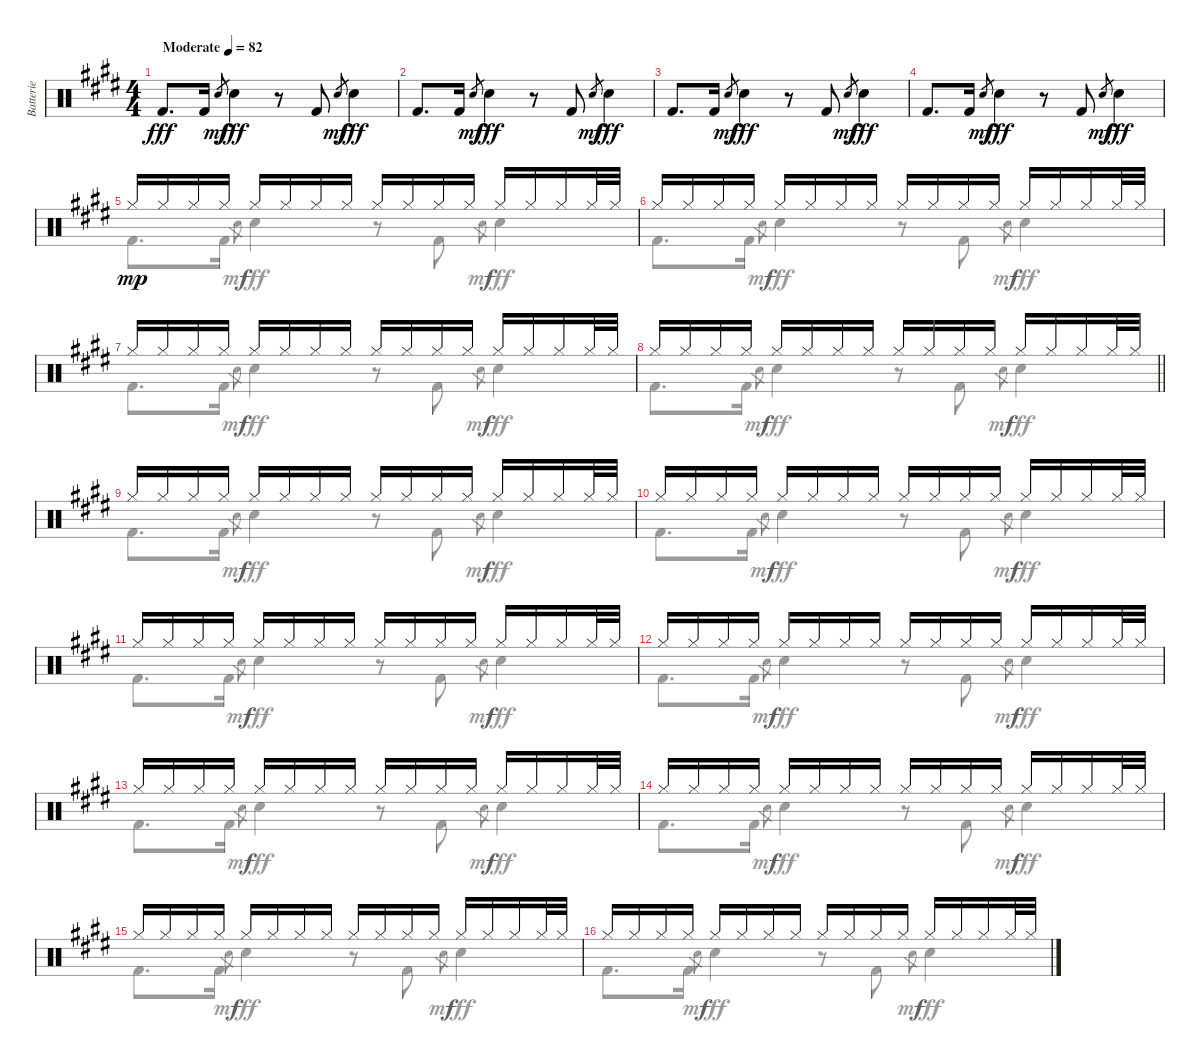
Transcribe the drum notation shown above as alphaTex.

\track ("Batterie" "Batterie") {instrument percussion}
\staff {score}
\articulation defaults
\voice
\ts (4 4)
\tempo (82 "Moderate")
\clef neutral
\ks e "Kick (hit) 2".8{d dy fff} "Kick (hit) 2".16 "Hand Clap (hit)".8{gr dy mf} "Hand Clap (hit)".4{dy fff}
r.8 "Kick (hit) 2".8 "Hand Clap (hit)".8{gr dy mf} "Hand Clap (hit)".4{dy fff} |
"Kick (hit) 2".8{d} "Kick (hit) 2".16 "Hand Clap (hit)".8{gr dy mf} "Hand Clap (hit)".4{dy fff} r.8 "Kick (hit) 2".8 "Hand Clap (hit)".8{gr dy mf} "Hand Clap (hit)".4{dy fff} |
"Kick (hit) 2".8{d} "Kick (hit) 2".16 "Hand Clap (hit)".8{gr dy mf} "Hand Clap (hit)".4{dy fff} r.8 "Kick (hit) 2".8 "Hand Clap (hit)".8{gr dy mf} "Hand Clap (hit)".4{dy fff} |
"Kick (hit) 2".8{d} "Kick (hit) 2".16 "Hand Clap (hit)".8{gr dy mf} "Hand Clap (hit)".4{dy fff} r.8 "Kick (hit) 2".8 "Hand Clap (hit)".8{gr dy mf} "Hand Clap (hit)".4{dy fff} |
"Hi-Hat (closed)".16{dy mp} "Hi-Hat (closed)".16 "Hi-Hat (closed)".16 "Hi-Hat (closed)".16 "Hi-Hat (closed)".16 "Hi-Hat (closed)".16 "Hi-Hat (closed)".16 "Hi-Hat (closed)".16 "Hi-Hat (closed)".16 "Hi-Hat (closed)".16 "Hi-Hat (closed)".16 "Hi-Hat (closed)".16 "Hi-Hat (closed)".16 "Hi-Hat (closed)".16 "Hi-Hat (closed)".16 "Hi-Hat (closed)".32 "Hi-Hat (closed)".32 |
"Hi-Hat (closed)".16 "Hi-Hat (closed)".16 "Hi-Hat (closed)".16 "Hi-Hat (closed)".16 "Hi-Hat (closed)".16 "Hi-Hat (closed)".16 "Hi-Hat (closed)".16 "Hi-Hat (closed)".16 "Hi-Hat (closed)".16 "Hi-Hat (closed)".16 "Hi-Hat (closed)".16 "Hi-Hat (closed)".16 "Hi-Hat (closed)".16 "Hi-Hat (closed)".16 "Hi-Hat (closed)".16 "Hi-Hat (closed)".32 "Hi-Hat (closed)".32 |
"Hi-Hat (closed)".16 "Hi-Hat (closed)".16 "Hi-Hat (closed)".16 "Hi-Hat (closed)".16 "Hi-Hat (closed)".16 "Hi-Hat (closed)".16 "Hi-Hat (closed)".16 "Hi-Hat (closed)".16 "Hi-Hat (closed)".16 "Hi-Hat (closed)".16 "Hi-Hat (closed)".16 "Hi-Hat (closed)".16 "Hi-Hat (closed)".16 "Hi-Hat (closed)".16 "Hi-Hat (closed)".16 "Hi-Hat (closed)".32 "Hi-Hat (closed)".32 |
\barLineRight lightlight "Hi-Hat (closed)".16 "Hi-Hat (closed)".16 "Hi-Hat (closed)".16 "Hi-Hat (closed)".16 "Hi-Hat (closed)".16 "Hi-Hat (closed)".16 "Hi-Hat (closed)".16 "Hi-Hat (closed)".16 "Hi-Hat (closed)".16 "Hi-Hat (closed)".16 "Hi-Hat (closed)".16 "Hi-Hat (closed)".16 "Hi-Hat (closed)".16 "Hi-Hat (closed)".16 "Hi-Hat (closed)".16 "Hi-Hat (closed)".32 "Hi-Hat (closed)".32
|
"Hi-Hat (closed)".16 "Hi-Hat (closed)".16 "Hi-Hat (closed)".16 "Hi-Hat (closed)".16 "Hi-Hat (closed)".16 "Hi-Hat (closed)".16 "Hi-Hat (closed)".16 "Hi-Hat (closed)".16 "Hi-Hat (closed)".16 "Hi-Hat (closed)".16 "Hi-Hat (closed)".16 "Hi-Hat (closed)".16 "Hi-Hat (closed)".16 "Hi-Hat (closed)".16 "Hi-Hat (closed)".16 "Hi-Hat (closed)".32 "Hi-Hat (closed)".32 |
"Hi-Hat (closed)".16 "Hi-Hat (closed)".16 "Hi-Hat (closed)".16 "Hi-Hat (closed)".16 "Hi-Hat (closed)".16 "Hi-Hat (closed)".16 "Hi-Hat (closed)".16 "Hi-Hat (closed)".16 "Hi-Hat (closed)".16 "Hi-Hat (closed)".16 "Hi-Hat (closed)".16 "Hi-Hat (closed)".16 "Hi-Hat (closed)".16 "Hi-Hat (closed)".16 "Hi-Hat (closed)".16 "Hi-Hat (closed)".32 "Hi-Hat (closed)".32 |
"Hi-Hat (closed)".16 "Hi-Hat (closed)".16 "Hi-Hat (closed)".16 "Hi-Hat (closed)".16 "Hi-Hat (closed)".16 "Hi-Hat (closed)".16 "Hi-Hat (closed)".16 "Hi-Hat (closed)".16 "Hi-Hat (closed)".16 "Hi-Hat (closed)".16 "Hi-Hat (closed)".16 "Hi-Hat (closed)".16 "Hi-Hat (closed)".16 "Hi-Hat (closed)".16 "Hi-Hat (closed)".16 "Hi-Hat (closed)".32 "Hi-Hat (closed)".32 |
"Hi-Hat (closed)".16 "Hi-Hat (closed)".16 "Hi-Hat (closed)".16 "Hi-Hat (closed)".16 "Hi-Hat (closed)".16 "Hi-Hat (closed)".16 "Hi-Hat (closed)".16 "Hi-Hat (closed)".16 "Hi-Hat (closed)".16 "Hi-Hat (closed)".16 "Hi-Hat (closed)".16 "Hi-Hat (closed)".16 "Hi-Hat (closed)".16 "Hi-Hat (closed)".16 "Hi-Hat (closed)".16 "Hi-Hat (closed)".32 "Hi-Hat (closed)".32 |
"Hi-Hat (closed)".16 "Hi-Hat (closed)".16 "Hi-Hat (closed)".16 "Hi-Hat (closed)".16 "Hi-Hat (closed)".16 "Hi-Hat (closed)".16 "Hi-Hat (closed)".16 "Hi-Hat (closed)".16 "Hi-Hat (closed)".16 "Hi-Hat (closed)".16 "Hi-Hat (closed)".16 "Hi-Hat (closed)".16 "Hi-Hat (closed)".16 "Hi-Hat (closed)".16 "Hi-Hat (closed)".16 "Hi-Hat (closed)".32 "Hi-Hat (closed)".32 |
"Hi-Hat (closed)".16 "Hi-Hat (closed)".16 "Hi-Hat (closed)".16 "Hi-Hat (closed)".16 "Hi-Hat (closed)".16 "Hi-Hat (closed)".16 "Hi-Hat (closed)".16 "Hi-Hat (closed)".16 "Hi-Hat (closed)".16 "Hi-Hat (closed)".16 "Hi-Hat (closed)".16 "Hi-Hat (closed)".16 "Hi-Hat (closed)".16 "Hi-Hat (closed)".16 "Hi-Hat (closed)".16 "Hi-Hat (closed)".32 "Hi-Hat (closed)".32 |
"Hi-Hat (closed)".16 "Hi-Hat (closed)".16 "Hi-Hat (closed)".16 "Hi-Hat (closed)".16 "Hi-Hat (closed)".16 "Hi-Hat (closed)".16 "Hi-Hat (closed)".16 "Hi-Hat (closed)".16 "Hi-Hat (closed)".16 "Hi-Hat (closed)".16 "Hi-Hat (closed)".16 "Hi-Hat (closed)".16 "Hi-Hat (closed)".16 "Hi-Hat (closed)".16 "Hi-Hat (closed)".16 "Hi-Hat (closed)".32 "Hi-Hat (closed)".32 |
"Hi-Hat (closed)".16 "Hi-Hat (closed)".16 "Hi-Hat (closed)".16 "Hi-Hat (closed)".16 "Hi-Hat (closed)".16 "Hi-Hat (closed)".16 "Hi-Hat (closed)".16 "Hi-Hat (closed)".16 "Hi-Hat (closed)".16 "Hi-Hat (closed)".16 "Hi-Hat (closed)".16 "Hi-Hat (closed)".16 "Hi-Hat (closed)".16 "Hi-Hat (closed)".16 "Hi-Hat (closed)".16 "Hi-Hat (closed)".32 "Hi-Hat (closed)".32
\voice
\clef neutral
\ottava regular
\simile none
\ks e
|
|
|
|
"Kick (hit) 2".8{d} "Kick (hit) 2".16 "Hand Clap (hit)".8{gr dy mf} "Hand Clap (hit)".4{dy fff} r.8 "Kick (hit) 2".8 "Hand Clap (hit)".8{gr dy mf} "Hand Clap (hit)".4{dy fff} |
"Kick (hit) 2".8{d} "Kick (hit) 2".16 "Hand Clap (hit)".8{gr dy mf} "Hand Clap (hit)".4{dy fff} r.8 "Kick (hit) 2".8 "Hand Clap (hit)".8{gr dy mf} "Hand Clap (hit)".4{dy fff} |
"Kick (hit) 2".8{d} "Kick (hit) 2".16 "Hand Clap (hit)".8{gr dy mf} "Hand Clap (hit)".4{dy fff} r.8 "Kick (hit) 2".8 "Hand Clap (hit)".8{gr dy mf} "Hand Clap (hit)".4{dy fff} |
\barLineRight lightlight "Kick (hit) 2".8{d} "Kick (hit) 2".16 "Hand Clap (hit)".8{gr dy mf} "Hand Clap (hit)".4{dy fff}
r.8 "Kick (hit) 2".8 "Hand Clap (hit)".8{gr dy mf} "Hand Clap (hit)".4{dy fff} |
"Kick (hit) 2".8{d} "Kick (hit) 2".16 "Hand Clap (hit)".8{gr dy mf} "Hand Clap (hit)".4{dy fff} r.8 "Kick (hit) 2".8 "Hand Clap (hit)".8{gr dy mf} "Hand Clap (hit)".4{dy fff} |
"Kick (hit) 2".8{d} "Kick (hit) 2".16 "Hand Clap (hit)".8{gr dy mf} "Hand Clap (hit)".4{dy fff} r.8 "Kick (hit) 2".8 "Hand Clap (hit)".8{gr dy mf} "Hand Clap (hit)".4{dy fff} |
"Kick (hit) 2".8{d} "Kick (hit) 2".16 "Hand Clap (hit)".8{gr dy mf} "Hand Clap (hit)".4{dy fff} r.8 "Kick (hit) 2".8 "Hand Clap (hit)".8{gr dy mf} "Hand Clap (hit)".4{dy fff} |
"Kick (hit) 2".8{d} "Kick (hit) 2".16 "Hand Clap (hit)".8{gr dy mf} "Hand Clap (hit)".4{dy fff} r.8 "Kick (hit) 2".8 "Hand Clap (hit)".8{gr dy mf} "Hand Clap (hit)".4{dy fff} |
"Kick (hit) 2".8{d} "Kick (hit) 2".16 "Hand Clap (hit)".8{gr dy mf} "Hand Clap (hit)".4{dy fff} r.8 "Kick (hit) 2".8 "Hand Clap (hit)".8{gr dy mf} "Hand Clap (hit)".4{dy fff} |
"Kick (hit) 2".8{d} "Kick (hit) 2".16 "Hand Clap (hit)".8{gr dy mf} "Hand Clap (hit)".4{dy fff} r.8 "Kick (hit) 2".8 "Hand Clap (hit)".8{gr dy mf} "Hand Clap (hit)".4{dy fff} |
"Kick (hit) 2".8{d} "Kick (hit) 2".16 "Hand Clap (hit)".8{gr dy mf} "Hand Clap (hit)".4{dy fff} r.8 "Kick (hit) 2".8 "Hand Clap (hit)".8{gr dy mf} "Hand Clap (hit)".4{dy fff} |
"Kick (hit) 2".8{d} "Kick (hit) 2".16 "Hand Clap (hit)".8{gr dy mf} "Hand Clap (hit)".4{dy fff} r.8 "Kick (hit) 2".8 "Hand Clap (hit)".8{gr dy mf} "Hand Clap (hit)".4{dy fff}
